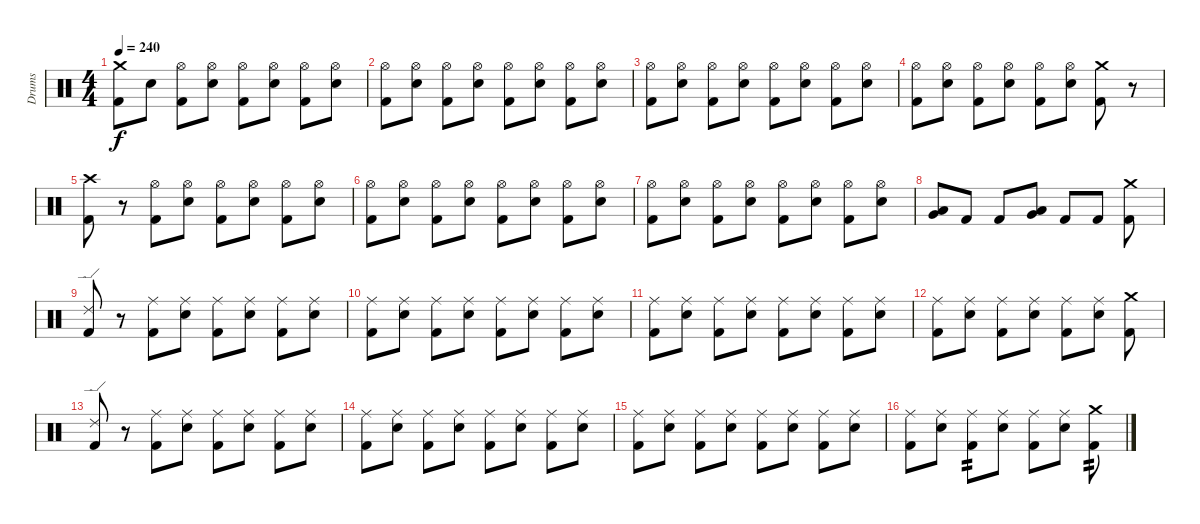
\track ("Drums" "Drums") {instrument percussion}
\staff {score}
\articulation defaults
\ts (4 4)
\tempo 240
\clef neutral
\ks c
("Crash medium (hit)" "Kick (hit) 2").8{dy f} "Snare (hit) 2".8 ("Hi-Hat (open)" "Kick (hit) 2").8 ("Hi-Hat (open)" "Snare (hit) 2").8 ("Hi-Hat (open)" "Kick (hit) 2").8 ("Hi-Hat (open)" "Snare (hit) 2").8 ("Hi-Hat (open)" "Kick (hit) 2").8 ("Hi-Hat (open)" "Snare (hit) 2").8 |
("Hi-Hat (open)" "Kick (hit) 2").8 ("Hi-Hat (open)" "Snare (hit) 2").8 ("Hi-Hat (open)" "Kick (hit) 2").8 ("Hi-Hat (open)" "Snare (hit) 2").8 ("Hi-Hat (open)" "Kick (hit) 2").8 ("Hi-Hat (open)" "Snare (hit) 2").8 ("Hi-Hat (open)" "Kick (hit) 2").8 ("Hi-Hat (open)" "Snare (hit) 2").8 |
("Hi-Hat (open)" "Kick (hit) 2").8 ("Hi-Hat (open)" "Snare (hit) 2").8 ("Hi-Hat (open)" "Kick (hit) 2").8 ("Hi-Hat (open)" "Snare (hit) 2").8 ("Hi-Hat (open)" "Kick (hit) 2").8 ("Hi-Hat (open)" "Snare (hit) 2").8 ("Hi-Hat (open)" "Kick (hit) 2").8 ("Hi-Hat (open)" "Snare (hit) 2").8 |
("Hi-Hat (open)" "Kick (hit) 2").8 ("Hi-Hat (open)" "Snare (hit) 2").8 ("Hi-Hat (open)" "Kick (hit) 2").8 ("Hi-Hat (open)" "Snare (hit) 2").8 ("Hi-Hat (open)" "Kick (hit) 2").8 ("Hi-Hat (open)" "Snare (hit) 2").8 ("Crash medium (hit)" "Kick (hit) 2").8 r.8 |
("Crash high (hit)" "Kick (hit) 2").8 r.8 ("Hi-Hat (open)" "Kick (hit) 2").8 ("Hi-Hat (open)" "Snare (hit) 2").8 ("Hi-Hat (open)" "Kick (hit) 2").8 ("Hi-Hat (open)" "Snare (hit) 2").8 ("Hi-Hat (open)" "Kick (hit) 2").8 ("Hi-Hat (open)" "Snare (hit) 2").8 |
("Hi-Hat (open)" "Kick (hit) 2").8 ("Hi-Hat (open)" "Snare (hit) 2").8 ("Hi-Hat (open)" "Kick (hit) 2").8 ("Hi-Hat (open)" "Snare (hit) 2").8 ("Hi-Hat (open)" "Kick (hit) 2").8 ("Hi-Hat (open)" "Snare (hit) 2").8 ("Hi-Hat (open)" "Kick (hit) 2").8 ("Hi-Hat (open)" "Snare (hit) 2").8 |
("Hi-Hat (open)" "Kick (hit) 2").8 ("Hi-Hat (open)" "Snare (hit) 2").8 ("Hi-Hat (open)" "Kick (hit) 2").8 ("Hi-Hat (open)" "Snare (hit) 2").8 ("Hi-Hat (open)" "Kick (hit) 2").8 ("Hi-Hat (open)" "Snare (hit) 2").8 ("Hi-Hat (open)" "Kick (hit) 2").8 ("Hi-Hat (open)" "Snare (hit) 2").8 |
("Very Low Tom (hit)" "Low Tom (hit)").8 "Kick (hit) 2".8 "Kick (hit) 2".8 ("Very Low Tom (hit)" "Low Tom (hit)").8 "Kick (hit) 2".8 "Kick (hit) 2".8 ("Crash medium (hit)" "Kick (hit) 2").8 |
("Ride (edge) 2" "Kick (hit) 2").8 r.8 ("Ride (middle)" "Kick (hit) 2").8 ("Ride (middle)" "Snare (hit) 2").8 ("Ride (middle)" "Kick (hit) 2").8 ("Ride (middle)" "Snare (hit) 2").8 ("Ride (middle)" "Kick (hit) 2").8 ("Ride (middle)" "Snare (hit) 2").8 |
("Ride (middle)" "Kick (hit) 2").8 ("Ride (middle)" "Snare (hit) 2").8 ("Ride (middle)" "Kick (hit) 2").8 ("Ride (middle)" "Snare (hit) 2").8 ("Ride (middle)" "Kick (hit) 2").8 ("Ride (middle)" "Snare (hit) 2").8 ("Ride (middle)" "Kick (hit) 2").8 ("Ride (middle)" "Snare (hit) 2").8 |
("Ride (middle)" "Kick (hit) 2").8 ("Ride (middle)" "Snare (hit) 2").8 ("Ride (middle)" "Kick (hit) 2").8 ("Ride (middle)" "Snare (hit) 2").8 ("Ride (middle)" "Kick (hit) 2").8 ("Ride (middle)" "Snare (hit) 2").8 ("Ride (middle)" "Kick (hit) 2").8 ("Ride (middle)" "Snare (hit) 2").8 |
("Ride (middle)" "Kick (hit) 2").8 ("Ride (middle)" "Snare (hit) 2").8 ("Ride (middle)" "Kick (hit) 2").8 ("Ride (middle)" "Snare (hit) 2").8 ("Ride (middle)" "Kick (hit) 2").8 ("Ride (middle)" "Snare (hit) 2").8 ("Crash medium (hit)" "Kick (hit) 2").8 |
("Ride (edge) 2" "Kick (hit) 2").8 r.8 ("Ride (middle)" "Kick (hit) 2").8 ("Ride (middle)" "Snare (hit) 2").8 ("Ride (middle)" "Kick (hit) 2").8 ("Ride (middle)" "Snare (hit) 2").8 ("Ride (middle)" "Kick (hit) 2").8 ("Ride (middle)" "Snare (hit) 2").8 |
("Ride (middle)" "Kick (hit) 2").8 ("Ride (middle)" "Snare (hit) 2").8 ("Ride (middle)" "Kick (hit) 2").8 ("Ride (middle)" "Snare (hit) 2").8 ("Ride (middle)" "Kick (hit) 2").8 ("Ride (middle)" "Snare (hit) 2").8 ("Ride (middle)" "Kick (hit) 2").8 ("Ride (middle)" "Snare (hit) 2").8 |
("Ride (middle)" "Kick (hit) 2").8 ("Ride (middle)" "Snare (hit) 2").8 ("Ride (middle)" "Kick (hit) 2").8 ("Ride (middle)" "Snare (hit) 2").8 ("Ride (middle)" "Kick (hit) 2").8 ("Ride (middle)" "Snare (hit) 2").8 ("Ride (middle)" "Kick (hit) 2").8 ("Ride (middle)" "Snare (hit) 2").8 |
("Ride (middle)" "Kick (hit) 2").8 ("Ride (middle)" "Snare (hit) 2").8 ("Ride (middle)" "Kick (hit) 2").8{tp 2} ("Ride (middle)" "Snare (hit) 2").8 ("Ride (middle)" "Kick (hit) 2").8 ("Ride (middle)" "Snare (hit) 2").8 ("Crash medium (hit)" "Kick (hit) 2").8{tp 2}
